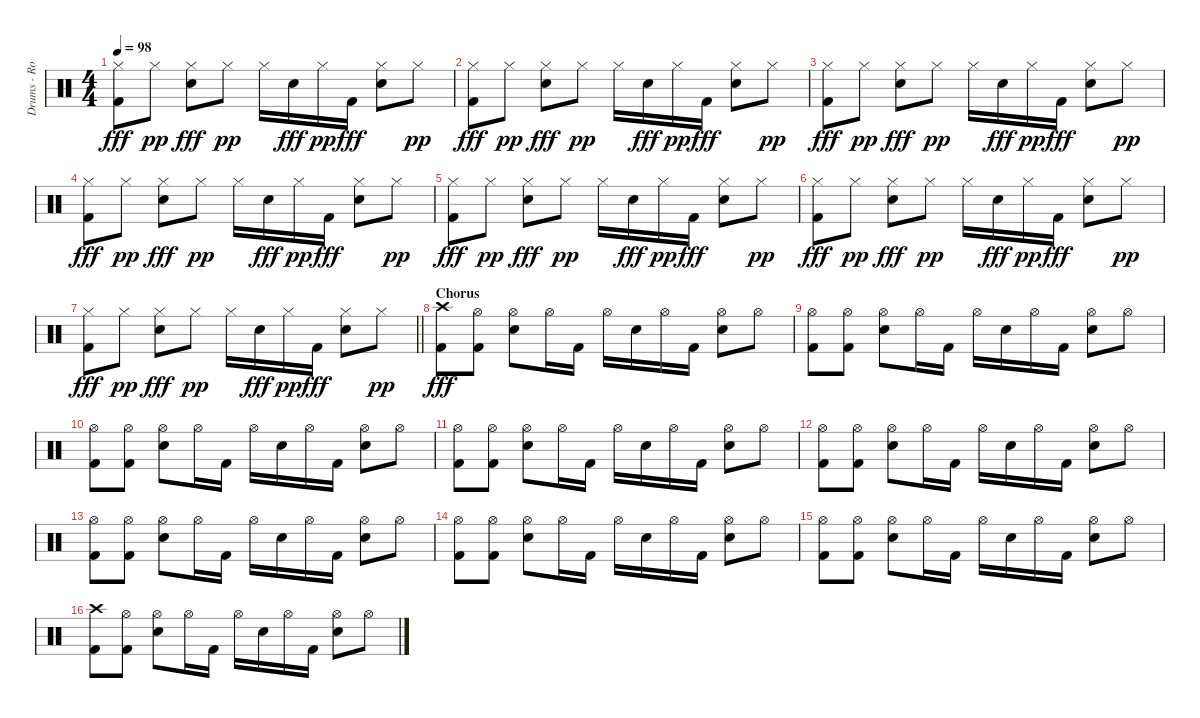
\track ("Drums - Rob Bourdon" "Drums - Ro") {instrument percussion}
\staff {score}
\articulation defaults
\ts (4 4)
\tempo 98
\clef neutral
\ks c
("Hi-Hat (closed)" "Kick (hit) 2").8{dy fff} "Hi-Hat (closed)".8{dy pp} ("Hi-Hat (closed)" "Snare (hit) 2").8{dy fff} "Hi-Hat (closed)".8{dy pp} "Hi-Hat (closed)".16 "Snare (hit) 2".16{dy fff} "Hi-Hat (closed)".16{dy pp} "Kick (hit) 2".16{dy fff} ("Hi-Hat (closed)" "Snare (hit) 2").8 "Hi-Hat (closed)".8{dy pp} |
("Hi-Hat (closed)" "Kick (hit) 2").8{dy fff} "Hi-Hat (closed)".8{dy pp} ("Hi-Hat (closed)" "Snare (hit) 2").8{dy fff} "Hi-Hat (closed)".8{dy pp} "Hi-Hat (closed)".16 "Snare (hit) 2".16{dy fff} "Hi-Hat (closed)".16{dy pp} "Kick (hit) 2".16{dy fff} ("Hi-Hat (closed)" "Snare (hit) 2").8 "Hi-Hat (closed)".8{dy pp} |
("Hi-Hat (closed)" "Kick (hit) 2").8{dy fff} "Hi-Hat (closed)".8{dy pp} ("Hi-Hat (closed)" "Snare (hit) 2").8{dy fff} "Hi-Hat (closed)".8{dy pp} "Hi-Hat (closed)".16 "Snare (hit) 2".16{dy fff} "Hi-Hat (closed)".16{dy pp} "Kick (hit) 2".16{dy fff} ("Hi-Hat (closed)" "Snare (hit) 2").8 "Hi-Hat (closed)".8{dy pp} |
("Hi-Hat (closed)" "Kick (hit) 2").8{dy fff} "Hi-Hat (closed)".8{dy pp} ("Hi-Hat (closed)" "Snare (hit) 2").8{dy fff} "Hi-Hat (closed)".8{dy pp} "Hi-Hat (closed)".16 "Snare (hit) 2".16{dy fff} "Hi-Hat (closed)".16{dy pp} "Kick (hit) 2".16{dy fff} ("Hi-Hat (closed)" "Snare (hit) 2").8 "Hi-Hat (closed)".8{dy pp} |
("Hi-Hat (closed)" "Kick (hit) 2").8{dy fff} "Hi-Hat (closed)".8{dy pp} ("Hi-Hat (closed)" "Snare (hit) 2").8{dy fff} "Hi-Hat (closed)".8{dy pp} "Hi-Hat (closed)".16 "Snare (hit) 2".16{dy fff} "Hi-Hat (closed)".16{dy pp} "Kick (hit) 2".16{dy fff} ("Hi-Hat (closed)" "Snare (hit) 2").8 "Hi-Hat (closed)".8{dy pp} |
("Hi-Hat (closed)" "Kick (hit) 2").8{dy fff} "Hi-Hat (closed)".8{dy pp} ("Hi-Hat (closed)" "Snare (hit) 2").8{dy fff} "Hi-Hat (closed)".8{dy pp} "Hi-Hat (closed)".16 "Snare (hit) 2".16{dy fff} "Hi-Hat (closed)".16{dy pp} "Kick (hit) 2".16{dy fff} ("Hi-Hat (closed)" "Snare (hit) 2").8 "Hi-Hat (closed)".8{dy pp} |
\barLineRight lightlight
("Hi-Hat (closed)" "Kick (hit) 2").8{dy fff} "Hi-Hat (closed)".8{dy pp} ("Hi-Hat (closed)" "Snare (hit) 2").8{dy fff} "Hi-Hat (closed)".8{dy pp} "Hi-Hat (closed)".16 "Snare (hit) 2".16{dy fff} "Hi-Hat (closed)".16{dy pp} "Kick (hit) 2".16{dy fff} ("Hi-Hat (closed)" "Snare (hit) 2").8 "Hi-Hat (closed)".8{dy pp} |
\section ("" "Chorus")
("Crash high (hit)" "Kick (hit) 2").8{dy fff} ("Hi-Hat (open)" "Kick (hit) 2").8 ("Hi-Hat (open)" "Snare (hit) 2").8 "Hi-Hat (open)".16 "Kick (hit) 2".16 "Hi-Hat (open)".16 "Snare (hit) 2".16 "Hi-Hat (open)".16 "Kick (hit) 2".16 ("Hi-Hat (open)" "Snare (hit) 2").8 "Hi-Hat (open)".8 |
("Hi-Hat (open)" "Kick (hit) 2").8 ("Hi-Hat (open)" "Kick (hit) 2").8 ("Hi-Hat (open)" "Snare (hit) 2").8 "Hi-Hat (open)".16 "Kick (hit) 2".16 "Hi-Hat (open)".16 "Snare (hit) 2".16 "Hi-Hat (open)".16 "Kick (hit) 2".16 ("Hi-Hat (open)" "Snare (hit) 2").8 "Hi-Hat (open)".8 |
("Hi-Hat (open)" "Kick (hit) 2").8 ("Hi-Hat (open)" "Kick (hit) 2").8 ("Hi-Hat (open)" "Snare (hit) 2").8 "Hi-Hat (open)".16 "Kick (hit) 2".16 "Hi-Hat (open)".16 "Snare (hit) 2".16 "Hi-Hat (open)".16 "Kick (hit) 2".16 ("Hi-Hat (open)" "Snare (hit) 2").8 "Hi-Hat (open)".8 |
("Hi-Hat (open)" "Kick (hit) 2").8 ("Hi-Hat (open)" "Kick (hit) 2").8 ("Hi-Hat (open)" "Snare (hit) 2").8 "Hi-Hat (open)".16 "Kick (hit) 2".16 "Hi-Hat (open)".16 "Snare (hit) 2".16 "Hi-Hat (open)".16 "Kick (hit) 2".16 ("Hi-Hat (open)" "Snare (hit) 2").8 "Hi-Hat (open)".8 |
("Hi-Hat (open)" "Kick (hit) 2").8 ("Hi-Hat (open)" "Kick (hit) 2").8 ("Hi-Hat (open)" "Snare (hit) 2").8 "Hi-Hat (open)".16 "Kick (hit) 2".16 "Hi-Hat (open)".16 "Snare (hit) 2".16 "Hi-Hat (open)".16 "Kick (hit) 2".16 ("Hi-Hat (open)" "Snare (hit) 2").8 "Hi-Hat (open)".8 |
("Hi-Hat (open)" "Kick (hit) 2").8 ("Hi-Hat (open)" "Kick (hit) 2").8 ("Hi-Hat (open)" "Snare (hit) 2").8 "Hi-Hat (open)".16 "Kick (hit) 2".16 "Hi-Hat (open)".16 "Snare (hit) 2".16 "Hi-Hat (open)".16 "Kick (hit) 2".16 ("Hi-Hat (open)" "Snare (hit) 2").8 "Hi-Hat (open)".8 |
("Hi-Hat (open)" "Kick (hit) 2").8 ("Hi-Hat (open)" "Kick (hit) 2").8 ("Hi-Hat (open)" "Snare (hit) 2").8 "Hi-Hat (open)".16 "Kick (hit) 2".16 "Hi-Hat (open)".16 "Snare (hit) 2".16 "Hi-Hat (open)".16 "Kick (hit) 2".16 ("Hi-Hat (open)" "Snare (hit) 2").8 "Hi-Hat (open)".8 |
("Hi-Hat (open)" "Kick (hit) 2").8 ("Hi-Hat (open)" "Kick (hit) 2").8 ("Hi-Hat (open)" "Snare (hit) 2").8 "Hi-Hat (open)".16 "Kick (hit) 2".16 "Hi-Hat (open)".16 "Snare (hit) 2".16 "Hi-Hat (open)".16 "Kick (hit) 2".16 ("Hi-Hat (open)" "Snare (hit) 2").8 "Hi-Hat (open)".8 |
("Crash high (hit)" "Kick (hit) 2").8 ("Hi-Hat (open)" "Kick (hit) 2").8 ("Hi-Hat (open)" "Snare (hit) 2").8 "Hi-Hat (open)".16 "Kick (hit) 2".16 "Hi-Hat (open)".16 "Snare (hit) 2".16 "Hi-Hat (open)".16 "Kick (hit) 2".16 ("Hi-Hat (open)" "Snare (hit) 2").8 "Hi-Hat (open)".8
